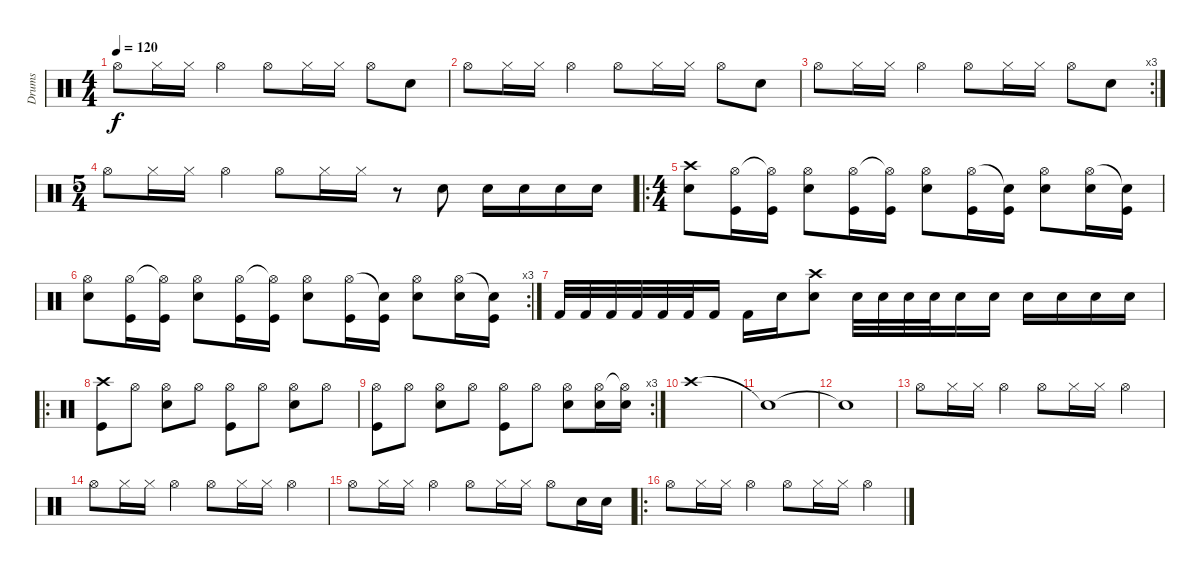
\track ("Drums" "Drums") {instrument percussion}
\staff {score}
\articulation defaults
\ts (4 4)
\tempo 120
\clef neutral
\ks c "Hi-Hat (open)".8{dy f} "Hi-Hat (closed)".16 "Hi-Hat (closed)".16 "Hi-Hat (open)".4 "Hi-Hat (open)".8 "Hi-Hat (closed)".16 "Hi-Hat (closed)".16 "Hi-Hat (open)".8 "Electric Snare (hit)".8
|
"Hi-Hat (open)".8 "Hi-Hat (closed)".16 "Hi-Hat (closed)".16 "Hi-Hat (open)".4 "Hi-Hat (open)".8 "Hi-Hat (closed)".16 "Hi-Hat (closed)".16 "Hi-Hat (open)".8 "Electric Snare (hit)".8 |
\rc 3 "Hi-Hat (open)".8 "Hi-Hat (closed)".16 "Hi-Hat (closed)".16 "Hi-Hat (open)".4 "Hi-Hat (open)".8 "Hi-Hat (closed)".16 "Hi-Hat (closed)".16 "Hi-Hat (open)".8 "Electric Snare (hit)".8
|
\ts (5 4)
"Hi-Hat (open)".8 "Hi-Hat (closed)".16 "Hi-Hat (closed)".16 "Hi-Hat (open)".4 "Hi-Hat (open)".8 "Hi-Hat (closed)".16 "Hi-Hat (closed)".16 r.8 "Electric Snare (hit)".8 "Electric Snare (hit)".16 "Electric Snare (hit)".16 "Electric Snare (hit)".16 "Electric Snare (hit)".16 |
\ro
\ts (4 4)
("Crash high (hit)" "Electric Snare (hit)").8 ("Hi-Hat (open)" "Kick (hit)").16 ("Hi-Hat (open)"{t} "Kick (hit)").16 ("Hi-Hat (open)" "Electric Snare (hit)").8 ("Hi-Hat (open)" "Kick (hit)").16 ("Hi-Hat (open)"{t} "Kick (hit)").16 ("Hi-Hat (open)" "Electric Snare (hit)").8 ("Hi-Hat (open)" "Kick (hit)").16 ("Snare (hit)"{t} "Kick (hit)").16 ("Hi-Hat (open)" "Electric Snare (hit)").8 ("Hi-Hat (open)" "Electric Snare (hit)").16 ("Snare (hit)"{t} "Kick (hit)").16 |
\rc 3
("Hi-Hat (open)" "Electric Snare (hit)").8 ("Hi-Hat (open)" "Kick (hit)").16 ("Hi-Hat (open)"{t} "Kick (hit)").16 ("Hi-Hat (open)" "Electric Snare (hit)").8 ("Hi-Hat (open)" "Kick (hit)").16 ("Hi-Hat (open)"{t} "Kick (hit)").16 ("Hi-Hat (open)" "Electric Snare (hit)").8 ("Hi-Hat (open)" "Kick (hit)").16 ("Snare (hit)"{t} "Kick (hit)").16 ("Hi-Hat (open)" "Electric Snare (hit)").8 ("Hi-Hat (open)" "Electric Snare (hit)").16 ("Snare (hit)"{t} "Kick (hit)").16 |
"Kick (hit) 2".32 "Kick (hit) 2".32 "Kick (hit) 2".32 "Kick (hit) 2".32 "Kick (hit) 2".32 "Kick (hit) 2".32 "Kick (hit) 2".16 "Kick (hit) 2".16 "Electric Snare (hit)".16 ("Crash high (hit)" "Electric Snare (hit)").8 "Electric Snare (hit)".32 "Electric Snare (hit)".32 "Electric Snare (hit)".32 "Electric Snare (hit)".32 "Electric Snare (hit)".16 "Electric Snare (hit)".16 "Electric Snare (hit)".16 "Electric Snare (hit)".16 "Electric Snare (hit)".16 "Electric Snare (hit)".16 |
\ro
("Crash high (hit)" "Kick (hit)").8 "Hi-Hat (open)".8 ("Hi-Hat (open)" "Electric Snare (hit)").8 "Hi-Hat (open)".8 ("Hi-Hat (open)" "Kick (hit)").8 "Hi-Hat (open)".8 ("Hi-Hat (open)" "Electric Snare (hit)").8 "Hi-Hat (open)".8 |
\rc 3
("Hi-Hat (open)" "Kick (hit)").8 "Hi-Hat (open)".8 ("Hi-Hat (open)" "Electric Snare (hit)").8 "Hi-Hat (open)".8 ("Hi-Hat (open)" "Kick (hit)").8 "Hi-Hat (open)".8 ("Hi-Hat (open)" "Electric Snare (hit)").8 ("Hi-Hat (open)" "Electric Snare (hit)").16 ("Hi-Hat (open)"{t} "Electric Snare (hit)").16 |
"Crash high (hit)".1 |
"Snare (hit)"{t}.1 |
"Snare (hit)"{t}.1 |
"Hi-Hat (open)".8 "Hi-Hat (closed)".16 "Hi-Hat (closed)".16 "Hi-Hat (open)".4 "Hi-Hat (open)".8 "Hi-Hat (closed)".16 "Hi-Hat (closed)".16 "Hi-Hat (open)".4 |
"Hi-Hat (open)".8 "Hi-Hat (closed)".16 "Hi-Hat (closed)".16 "Hi-Hat (open)".4 "Hi-Hat (open)".8 "Hi-Hat (closed)".16 "Hi-Hat (closed)".16 "Hi-Hat (open)".4 |
"Hi-Hat (open)".8 "Hi-Hat (closed)".16 "Hi-Hat (closed)".16 "Hi-Hat (open)".4 "Hi-Hat (open)".8 "Hi-Hat (closed)".16 "Hi-Hat (closed)".16 "Hi-Hat (open)".8 "Electric Snare (hit)".16 "Electric Snare (hit)".16 |
\ro "Hi-Hat (open)".8 "Hi-Hat (closed)".16 "Hi-Hat (closed)".16 "Hi-Hat (open)".4 "Hi-Hat (open)".8 "Hi-Hat (closed)".16 "Hi-Hat (closed)".16 "Hi-Hat (open)".4
